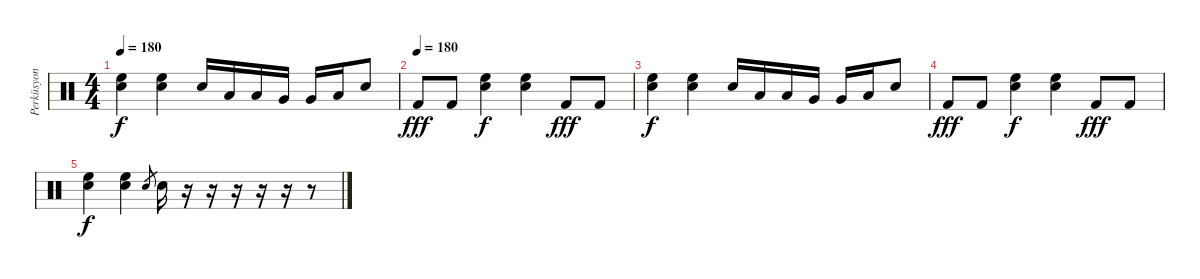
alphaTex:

\track ("Perküsyon" "Perküsyon") {instrument percussion}
\staff {score}
\articulation defaults
\ts (4 4)
\tempo 180
\clef neutral
\ks c
("High Floor Tom (hit)" "Electric Snare (hit)").4{dy f} ("High Floor Tom (hit)" "Electric Snare (hit)").4 "Electric Snare (hit)".16 "Low Tom (hit)".16 "Low Tom (hit)".16 "Very Low Tom (hit)".16 "Very Low Tom (hit)".16 "Low Floor Tom (hit)".16 "Electric Snare (hit)".8 |
\tempo (180)
"Kick (hit) 2".8{dy fff} "Kick (hit) 2".8 ("High Floor Tom (hit)" "Electric Snare (hit)").4{dy f} ("High Floor Tom (hit)" "Electric Snare (hit)").4 "Kick (hit) 2".8{dy fff} "Kick (hit) 2".8 |
("High Floor Tom (hit)" "Electric Snare (hit)").4{dy f} ("High Floor Tom (hit)" "Electric Snare (hit)").4 "Electric Snare (hit)".16 "Low Tom (hit)".16 "Low Tom (hit)".16 "Very Low Tom (hit)".16 "Very Low Tom (hit)".16 "Low Floor Tom (hit)".16 "Electric Snare (hit)".8 |
"Kick (hit) 2".8{dy fff} "Kick (hit) 2".8 ("High Floor Tom (hit)" "Electric Snare (hit)").4{dy f} ("High Floor Tom (hit)" "Electric Snare (hit)").4 "Kick (hit) 2".8{dy fff} "Kick (hit) 2".8 |
("High Floor Tom (hit)" "Electric Snare (hit)").4{dy f} ("High Floor Tom (hit)" "Electric Snare (hit)").4 "Electric Snare (hit)".8{gr} "Electric Snare (hit)".16 r.16 r.16 r.16 r.16 r.16 r.8
